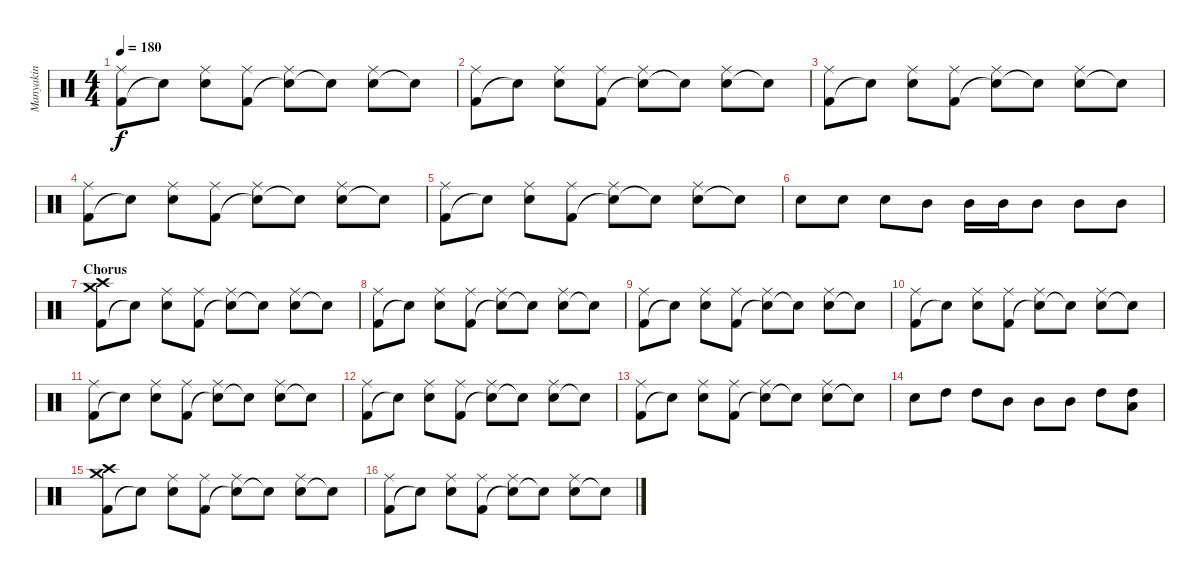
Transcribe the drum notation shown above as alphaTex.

\track ("Manyakin" "Manyakin") {instrument percussion}
\staff {score}
\articulation defaults
\ts (4 4)
\tempo 180
\clef neutral
\ks c
("Kick (hit) 2" "Ride (middle)").8{dy f} "Snare (hit)"{t}.8 ("Snare (hit) 2" "Ride (middle)").8 ("Kick (hit) 2" "Ride (middle)").8 ("Snare (hit)"{t} "Ride (middle)").8 "Snare (hit)"{t}.8 ("Snare (hit) 2" "Ride (middle)").8 "Snare (hit) 2"{t}.8 |
("Kick (hit) 2" "Ride (middle)").8 "Snare (hit)"{t}.8 ("Snare (hit) 2" "Ride (middle)").8 ("Kick (hit) 2" "Ride (middle)").8 ("Snare (hit)"{t} "Ride (middle)").8 "Snare (hit)"{t}.8 ("Snare (hit) 2" "Ride (middle)").8 "Snare (hit) 2"{t}.8 |
("Kick (hit) 2" "Ride (middle)").8 "Snare (hit)"{t}.8 ("Snare (hit) 2" "Ride (middle)").8 ("Kick (hit) 2" "Ride (middle)").8 ("Snare (hit)"{t} "Ride (middle)").8 "Snare (hit)"{t}.8 ("Snare (hit) 2" "Ride (middle)").8 "Snare (hit) 2"{t}.8 |
("Kick (hit) 2" "Ride (middle)").8 "Snare (hit)"{t}.8 ("Snare (hit) 2" "Ride (middle)").8 ("Kick (hit) 2" "Ride (middle)").8 ("Snare (hit)"{t} "Ride (middle)").8 "Snare (hit)"{t}.8 ("Snare (hit) 2" "Ride (middle)").8 "Snare (hit) 2"{t}.8 |
("Kick (hit) 2" "Ride (middle)").8 "Snare (hit)"{t}.8 ("Snare (hit) 2" "Ride (middle)").8 ("Kick (hit) 2" "Ride (middle)").8 ("Snare (hit)"{t} "Ride (middle)").8 "Snare (hit)"{t}.8 ("Snare (hit) 2" "Ride (middle)").8 "Snare (hit) 2"{t}.8 |
"Snare (hit) 2".8 "Snare (hit) 2".8 "Snare (hit) 2".8 "Mid Tom (hit)".8 "Mid Tom (hit)".16 "Mid Tom (hit)".16 "Mid Tom (hit)".8 "Mid Tom (hit)".8 "Mid Tom (hit)".8 |
\section ("" "Chorus")
("Kick (hit) 2" "Crash high (hit)" "Crash medium (hit)").8 "Snare (hit)"{t}.8 ("Snare (hit) 2" "Ride (middle)").8 ("Kick (hit) 2" "Ride (middle)").8 ("Snare (hit)"{t} "Ride (middle)").8 "Snare (hit)"{t}.8 ("Snare (hit) 2" "Ride (middle)").8 "Snare (hit) 2"{t}.8 |
("Kick (hit) 2" "Ride (middle)").8 "Snare (hit)"{t}.8 ("Snare (hit) 2" "Ride (middle)").8 ("Kick (hit) 2" "Ride (middle)").8 ("Snare (hit)"{t} "Ride (middle)").8 "Snare (hit)"{t}.8 ("Snare (hit) 2" "Ride (middle)").8 "Snare (hit) 2"{t}.8 |
("Kick (hit) 2" "Ride (middle)").8 "Snare (hit)"{t}.8 ("Snare (hit) 2" "Ride (middle)").8 ("Kick (hit) 2" "Ride (middle)").8 ("Snare (hit)"{t} "Ride (middle)").8 "Snare (hit)"{t}.8 ("Snare (hit) 2" "Ride (middle)").8 "Snare (hit) 2"{t}.8 |
("Kick (hit) 2" "Ride (middle)").8 "Snare (hit)"{t}.8 ("Snare (hit) 2" "Ride (middle)").8 ("Kick (hit) 2" "Ride (middle)").8 ("Snare (hit)"{t} "Ride (middle)").8 "Snare (hit)"{t}.8 ("Snare (hit) 2" "Ride (middle)").8 "Snare (hit) 2"{t}.8 |
("Kick (hit) 2" "Ride (middle)").8 "Snare (hit)"{t}.8 ("Snare (hit) 2" "Ride (middle)").8 ("Kick (hit) 2" "Ride (middle)").8 ("Snare (hit)"{t} "Ride (middle)").8 "Snare (hit)"{t}.8 ("Snare (hit) 2" "Ride (middle)").8 "Snare (hit) 2"{t}.8 |
("Kick (hit) 2" "Ride (middle)").8 "Snare (hit)"{t}.8 ("Snare (hit) 2" "Ride (middle)").8 ("Kick (hit) 2" "Ride (middle)").8 ("Snare (hit)"{t} "Ride (middle)").8 "Snare (hit)"{t}.8 ("Snare (hit) 2" "Ride (middle)").8 "Snare (hit) 2"{t}.8 |
("Kick (hit) 2" "Ride (middle)").8 "Snare (hit)"{t}.8 ("Snare (hit) 2" "Ride (middle)").8 ("Kick (hit) 2" "Ride (middle)").8 ("Snare (hit)"{t} "Ride (middle)").8 "Snare (hit)"{t}.8 ("Snare (hit) 2" "Ride (middle)").8 "Snare (hit) 2"{t}.8 |
"Electric Snare (hit)".8 "High Tom (hit)".8 "High Tom (hit)".8 "Mid Tom (hit)".8 "Mid Tom (hit)".8 "Mid Tom (hit)".8 "High Tom (hit)".8 ("High Tom (hit)" "Low Tom (hit)").8 |
("Kick (hit) 2" "Crash high (hit)" "Crash medium (hit)").8 "Snare (hit)"{t}.8 ("Snare (hit) 2" "Ride (middle)").8 ("Kick (hit) 2" "Ride (middle)").8 ("Snare (hit)"{t} "Ride (middle)").8 "Snare (hit)"{t}.8 ("Snare (hit) 2" "Ride (middle)").8 "Snare (hit) 2"{t}.8 |
("Kick (hit) 2" "Ride (middle)").8 "Snare (hit)"{t}.8 ("Snare (hit) 2" "Ride (middle)").8 ("Kick (hit) 2" "Ride (middle)").8 ("Snare (hit)"{t} "Ride (middle)").8 "Snare (hit)"{t}.8 ("Snare (hit) 2" "Ride (middle)").8 "Snare (hit) 2"{t}.8
